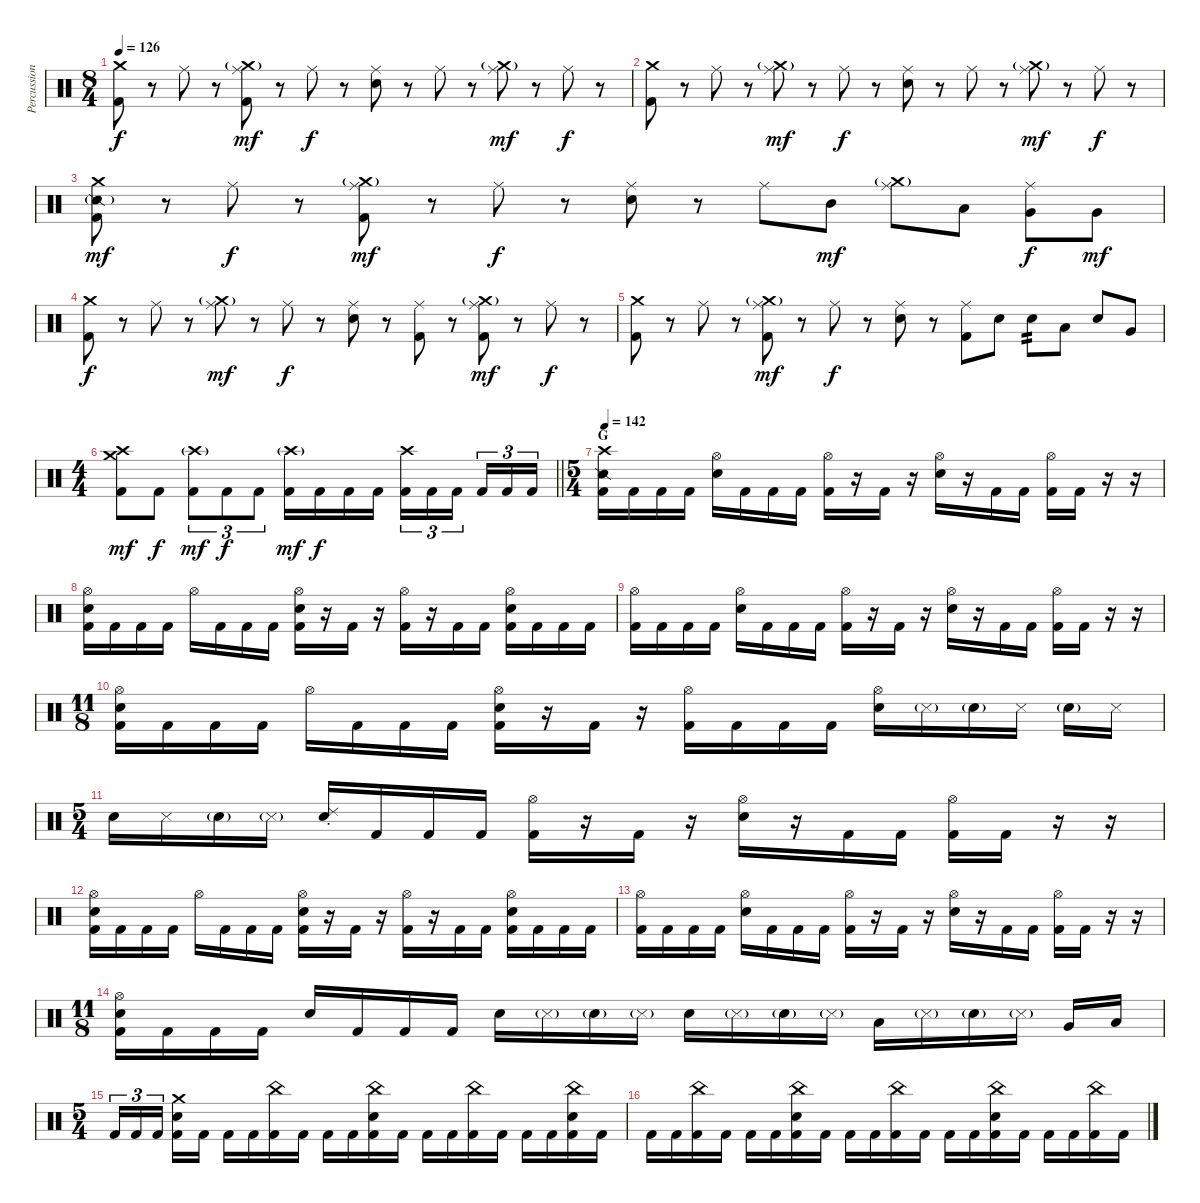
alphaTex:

\track ("Percussion" "Percussion") {instrument percussion}
\staff {score}
\articulation defaults
\ts (8 4)
\tempo 126
\clef neutral
\ks c
("Crash medium (hit)" "Kick (hit) 2").8{dy f} r.8 "Ride (middle)".8 r.8 ("Ride (middle)" "Crash medium (hit)"{g} "Kick (hit) 2").8{dy mf} r.8 "Ride (middle)".8{dy f} r.8 ("Ride (middle)" "Snare (hit) 2").8 r.8 "Ride (middle)".8 r.8 ("Ride (middle)" "Crash medium (hit)"{g}).8{dy mf} r.8 "Ride (middle)".8{dy f} r.8 |
("Crash medium (hit)" "Kick (hit) 2").8 r.8 "Ride (middle)".8 r.8 ("Ride (middle)" "Crash medium (hit)"{g}).8{dy mf} r.8 "Ride (middle)".8{dy f} r.8 ("Ride (middle)" "Snare (hit) 2").8 r.8 "Ride (middle)".8 r.8 ("Ride (middle)" "Crash medium (hit)"{g}).8{dy mf} r.8 "Ride (middle)".8{dy f} r.8 |
("Crash medium (hit)" "Snare (side stick) 2"{g} "Kick (hit) 2").8{dy mf} r.8 "Ride (middle)".8{dy f} r.8 ("Ride (middle)" "Crash medium (hit)"{g} "Kick (hit) 2").8{dy mf} r.8 "Ride (middle)".8{dy f} r.8 ("Ride (middle)" "Snare (hit) 2").8 r.8 "Ride (middle)".8 "Mid Tom (hit)".8{dy mf} ("Ride (middle)" "Crash medium (hit)"{g}).8 "Low Tom (hit)".8 ("Ride (middle)" "Very Low Tom (hit)").8{dy f} "Very Low Tom (hit)".8{dy mf} |
("Crash medium (hit)" "Kick (hit) 2").8{dy f} r.8 "Ride (middle)".8 r.8 ("Ride (middle)" "Crash medium (hit)"{g}).8{dy mf} r.8 "Ride (middle)".8{dy f} r.8 ("Ride (middle)" "Snare (hit) 2").8 r.8 ("Ride (middle)" "Kick (hit) 2").8 r.8 ("Ride (middle)" "Crash medium (hit)"{g} "Kick (hit) 2").8{dy mf} r.8 "Ride (middle)".8{dy f} r.8 |
("Crash medium (hit)" "Kick (hit) 2").8 r.8 "Ride (middle)".8 r.8 ("Ride (middle)" "Crash medium (hit)"{g} "Kick (hit) 2").8{dy mf} r.8 "Ride (middle)".8{dy f} r.8 ("Ride (middle)" "Snare (hit) 2").8 r.8 ("Ride (middle)" "Kick (hit) 2").8 "Snare (hit) 2".8 "Snare (hit) 2".8{tp 2} "Low Tom (hit)".8 "Snare (hit) 2".8 "Very Low Tom (hit)".8 |
\ts (4 4)
\barLineRight lightlight
("Crash high (hit)" "Crash medium (hit)" "Kick (hit) 2").8{dy mf} "Kick (hit) 2".8{dy f} ("Crash high (hit)"{g} "Kick (hit) 2").8{tu (3 2) dy mf} "Kick (hit) 2".8{tu (3 2) dy f} "Kick (hit) 2".8{tu (3 2)} ("Crash high (hit)"{g} "Kick (hit) 2").16{dy mf} "Kick (hit) 2".16{dy f} "Kick (hit) 2".16 "Kick (hit) 2".16 ("Crash high (hit)" "Kick (hit) 2").16{tu (3 2)} "Kick (hit) 2".16{tu (3 2)} "Kick (hit) 2".16{tu (3 2) beam splitsecondary} "Kick (hit) 2".16{tu (3 2)} "Kick (hit) 2".16{tu (3 2)} "Kick (hit) 2".16{tu (3 2)} |
\ts (5 4)
\section ("" "G")
\tempo 142
("Crash high (hit)" "Snare (side stick) 2" "Kick (hit) 2").16 "Kick (hit) 2".16 "Kick (hit) 2".16 "Kick (hit) 2".16 ("Hi-Hat (open)" "Snare (hit) 2").16 "Kick (hit) 2".16 "Kick (hit) 2".16 "Kick (hit) 2".16 ("Hi-Hat (open)" "Kick (hit) 2").16 r.16 "Kick (hit) 2".16 r.16 ("Hi-Hat (open)" "Snare (hit) 2").16 r.16 "Kick (hit) 2".16 "Kick (hit) 2".16 ("Hi-Hat (open)" "Kick (hit) 2").16 "Kick (hit) 2".16 r.16 r.16 |
("Hi-Hat (open)" "Snare (hit) 2" "Kick (hit) 2").16 "Kick (hit) 2".16 "Kick (hit) 2".16 "Kick (hit) 2".16 "Hi-Hat (open)".16 "Kick (hit) 2".16 "Kick (hit) 2".16 "Kick (hit) 2".16 ("Hi-Hat (open)" "Snare (hit) 2" "Kick (hit) 2").16 r.16 "Kick (hit) 2".16 r.16 ("Hi-Hat (open)" "Kick (hit) 2").16 r.16 "Kick (hit) 2".16 "Kick (hit) 2".16 ("Hi-Hat (open)" "Snare (hit) 2" "Kick (hit) 2").16 "Kick (hit) 2".16 "Kick (hit) 2".16 "Kick (hit) 2".16 |
("Hi-Hat (open)" "Kick (hit) 2").16 "Kick (hit) 2".16 "Kick (hit) 2".16 "Kick (hit) 2".16 ("Hi-Hat (open)" "Snare (hit) 2").16 "Kick (hit) 2".16 "Kick (hit) 2".16 "Kick (hit) 2".16 ("Hi-Hat (open)" "Kick (hit) 2").16 r.16 "Kick (hit) 2".16 r.16 ("Hi-Hat (open)" "Snare (hit) 2").16 r.16 "Kick (hit) 2".16 "Kick (hit) 2".16 ("Hi-Hat (open)" "Kick (hit) 2").16 "Kick (hit) 2".16 r.16 r.16 |
\ts (11 8)
("Hi-Hat (open)" "Snare (hit) 2" "Kick (hit) 2").16 "Kick (hit) 2".16 "Kick (hit) 2".16 "Kick (hit) 2".16 "Hi-Hat (open)".16 "Kick (hit) 2".16 "Kick (hit) 2".16 "Kick (hit) 2".16 ("Hi-Hat (open)" "Snare (hit) 2" "Kick (hit) 2").16 r.16 "Kick (hit) 2".16 r.16 ("Hi-Hat (open)" "Kick (hit) 2").16 "Kick (hit) 2".16 "Kick (hit) 2".16 "Kick (hit) 2".16 ("Hi-Hat (open)" "Snare (hit) 2").16 "Metronome (hit)"{g}.16 "Snare (hit) 2"{g}.16 "Metronome (hit)".16 "Snare (hit) 2"{g}.16 "Metronome (hit)".16 |
\ts (5 4)
"Snare (hit) 2".16 "Metronome (hit)".16 "Snare (hit) 2"{g}.16 "Metronome (hit)"{g}.16 ("Ride (choke) 2" "Snare (hit) 2").16 "Kick (hit) 2".16 "Kick (hit) 2".16 "Kick (hit) 2".16 ("Hi-Hat (open)" "Kick (hit) 2").16 r.16 "Kick (hit) 2".16 r.16 ("Hi-Hat (open)" "Snare (hit) 2").16 r.16 "Kick (hit) 2".16 "Kick (hit) 2".16 ("Hi-Hat (open)" "Kick (hit) 2").16 "Kick (hit) 2".16 r.16 r.16 |
("Hi-Hat (open)" "Snare (hit) 2" "Kick (hit) 2").16 "Kick (hit) 2".16 "Kick (hit) 2".16 "Kick (hit) 2".16 "Hi-Hat (open)".16 "Kick (hit) 2".16 "Kick (hit) 2".16 "Kick (hit) 2".16 ("Hi-Hat (open)" "Snare (hit) 2" "Kick (hit) 2").16 r.16 "Kick (hit) 2".16 r.16 ("Hi-Hat (open)" "Kick (hit) 2").16 r.16 "Kick (hit) 2".16 "Kick (hit) 2".16 ("Hi-Hat (open)" "Snare (hit) 2" "Kick (hit) 2").16 "Kick (hit) 2".16 "Kick (hit) 2".16 "Kick (hit) 2".16 |
("Hi-Hat (open)" "Kick (hit) 2").16 "Kick (hit) 2".16 "Kick (hit) 2".16 "Kick (hit) 2".16 ("Hi-Hat (open)" "Snare (hit) 2").16 "Kick (hit) 2".16 "Kick (hit) 2".16 "Kick (hit) 2".16 ("Hi-Hat (open)" "Kick (hit) 2").16 r.16 "Kick (hit) 2".16 r.16 ("Hi-Hat (open)" "Snare (hit) 2").16 r.16 "Kick (hit) 2".16 "Kick (hit) 2".16 ("Hi-Hat (open)" "Kick (hit) 2").16 "Kick (hit) 2".16 r.16 r.16 |
\ts (11 8)
("Hi-Hat (open)" "Snare (hit) 2" "Kick (hit) 2").16 "Kick (hit) 2".16 "Kick (hit) 2".16 "Kick (hit) 2".16 "Snare (hit)".16 "Kick (hit) 2".16 "Kick (hit) 2".16 "Kick (hit) 2".16 "Snare (hit) 2".16 "Metronome (hit)"{g}.16 "Snare (hit) 2"{g}.16 "Metronome (hit)"{g}.16 "Snare (hit) 2".16 "Metronome (hit)"{g}.16 "Snare (hit) 2"{g}.16 "Metronome (hit)"{g}.16 "Low Tom (hit)".16 "Metronome (hit)"{g}.16 "Snare (hit) 2"{g}.16 "Metronome (hit)"{g}.16 "Very Low Tom (hit)".16 "Low Floor Tom (hit)".16 |
\ts (5 4)
"Kick (hit) 2".16{tu (3 2)} "Kick (hit) 2".16{tu (3 2)} "Kick (hit) 2".16{tu (3 2) beam splitsecondary} ("Crash medium (hit)" "Snare (hit) 2" "Kick (hit) 2").16 "Kick (hit) 2".16 "Kick (hit) 2".16 "Kick (hit) 2".16 ("China (hit)" "Kick (hit) 2").16 "Kick (hit) 2".16 "Kick (hit) 2".16 "Kick (hit) 2".16 ("China (hit)" "Snare (hit) 2" "Kick (hit) 2").16 "Kick (hit) 2".16 "Kick (hit) 2".16 "Kick (hit) 2".16 ("China (hit)" "Kick (hit) 2").16 "Kick (hit) 2".16 "Kick (hit) 2".16 "Kick (hit) 2".16 ("China (hit)" "Snare (hit) 2" "Kick (hit) 2").16 "Kick (hit) 2".16 |
"Kick (hit) 2".16 "Kick (hit) 2".16 ("China (hit)" "Kick (hit) 2").16 "Kick (hit) 2".16 "Kick (hit) 2".16 "Kick (hit) 2".16 ("China (hit)" "Snare (hit) 2" "Kick (hit) 2").16 "Kick (hit) 2".16 "Kick (hit) 2".16 "Kick (hit) 2".16 ("China (hit)" "Kick (hit) 2").16 "Kick (hit) 2".16 "Kick (hit) 2".16 "Kick (hit) 2".16 ("China (hit)" "Snare (hit) 2" "Kick (hit) 2").16 "Kick (hit) 2".16 "Kick (hit) 2".16 "Kick (hit) 2".16 ("China (hit)" "Kick (hit) 2").16 "Kick (hit) 2".16
